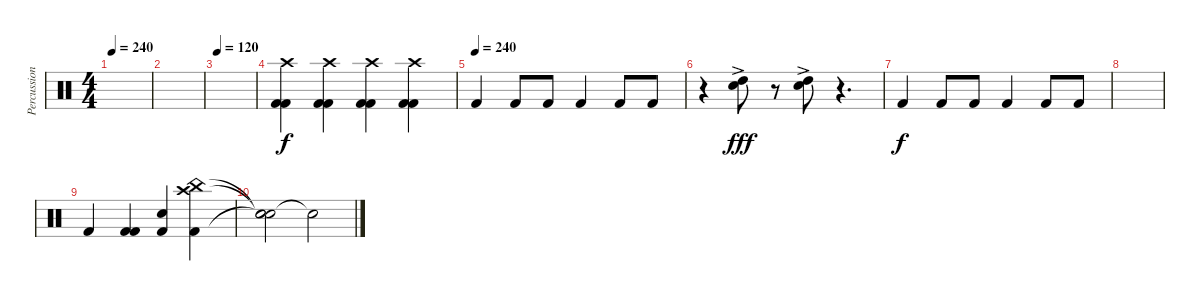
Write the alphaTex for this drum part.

\track ("Percussions" "Percussion") {instrument percussion}
\staff {score}
\articulation defaults
\ts (4 4)
\tempo 240
\clef neutral
\ks c
|
|
\tempo 120
|
("Kick (hit) 2" "Kick (hit) 2" "Crash high (hit)").4 ("Kick (hit) 2" "Kick (hit) 2" "Crash high (hit)").4 ("Kick (hit) 2" "Kick (hit) 2" "Crash high (hit)").4 ("Kick (hit) 2" "Kick (hit) 2" "Crash high (hit)").4 |
\tempo (240)
"Kick (hit) 2".4 "Kick (hit) 2".8 "Kick (hit) 2".8 "Kick (hit) 2".4 "Kick (hit) 2".8 "Kick (hit) 2".8 |
r.4 ("Hand Clap (hit)"{ac} "High Tom (hit)").8{dy fff} r.8 ("Hand Clap (hit)"{ac} "High Tom (hit)").8 r.4{d} |
"Kick (hit) 2".4{dy f} "Kick (hit) 2".8 "Kick (hit) 2".8 "Kick (hit) 2".4 "Kick (hit) 2".8 "Kick (hit) 2".8 |
|
"Kick (hit) 2".4 ("Kick (hit) 2" "Kick (hit) 2").4 ("Kick (hit) 2" "Electric Snare (hit)").4 ("Kick (hit) 2" "Crash high (hit)" "China (hit)").4 |
("Snare (hit)"{t} "Snare (hit)"{t} "Snare (hit)"{t}).2 "Snare (hit)"{t}.2
